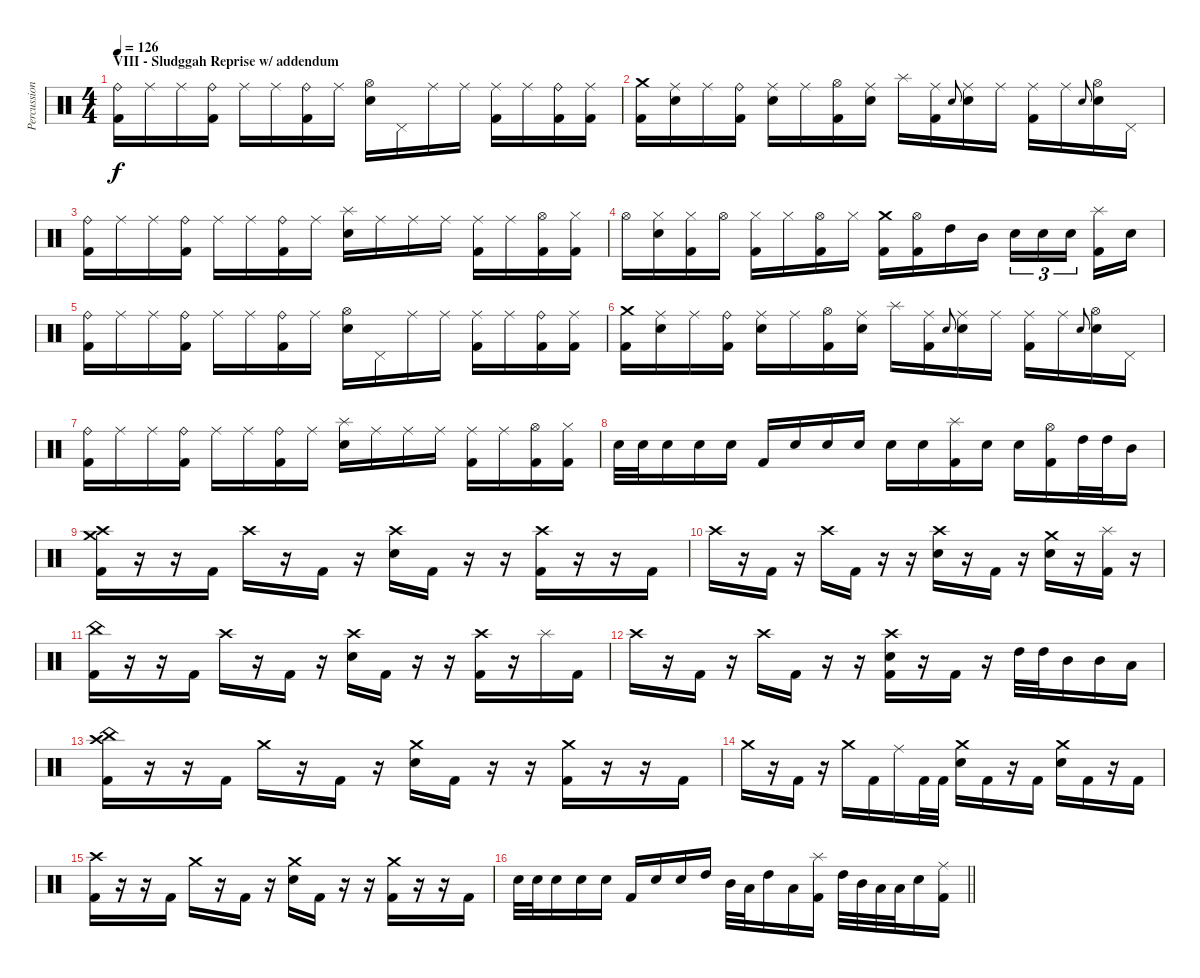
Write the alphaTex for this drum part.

\track ("Percussion" "Percussion") {instrument percussion}
\staff {score}
\articulation defaults
\ts (4 4)
\section ("" "VIII - Sludggah Reprise w/ addendum")
\tempo 126
\clef neutral
\ks c
("Ride (bell)" "Kick (hit) 2").16{dy f} "Ride (middle)".16 "Ride (middle)".16 ("Ride (bell)" "Kick (hit) 2").16 "Ride (middle)".16 "Ride (middle)".16 ("Ride (bell)" "Kick (hit) 2").16 "Ride (middle)".16 ("Hi-Hat (open)" "Electric Snare (hit)").16 "Pedal Hi-Hat (hit)".16 "Ride (middle)".16 "Ride (middle)".16 ("Ride (middle)" "Kick (hit) 2").16 "Ride (middle)".16 ("Ride (bell)" "Kick (hit) 2").16 ("Ride (middle)" "Kick (hit) 2").16 |
("Crash medium (hit)" "Kick (hit) 2").16 ("Ride (middle)" "Electric Snare (hit)").16 "Ride (middle)".16 ("Ride (bell)" "Kick (hit) 2").16 ("Ride (middle)" "Electric Snare (hit)").16 "Ride (middle)".16 ("Hi-Hat (open)" "Kick (hit) 2").16 ("Ride (middle)" "Electric Snare (hit)").16 "Splash (hit)".16 ("Ride (middle)" "Kick (hit) 2").16 "Electric Snare (hit)"{h}.8{gr onbeat} ("Ride (middle)" "Electric Snare (hit)").16 "Ride (middle)".16 ("Ride (middle)" "Kick (hit) 2").16 "Ride (middle)".16 "Electric Snare (hit)"{h}.8{gr onbeat} ("Hi-Hat (open)" "Electric Snare (hit)").16 "Pedal Hi-Hat (hit)".16 |
("Ride (bell)" "Kick (hit) 2").16 "Ride (middle)".16 "Ride (middle)".16 ("Ride (bell)" "Kick (hit) 2").16 "Ride (middle)".16 "Ride (middle)".16 ("Ride (bell)" "Kick (hit) 2").16 "Ride (middle)".16 ("Splash (hit)" "Electric Snare (hit)").16 "Ride (middle)".16 "Ride (middle)".16 "Ride (middle)".16 ("Ride (middle)" "Kick (hit) 2").16 "Ride (middle)".16 ("Hi-Hat (open)" "Kick (hit) 2").16 ("Hi-Hat (closed)" "Kick (hit) 2").16 |
"Hi-Hat (open)".16 ("Hi-Hat (closed)" "Electric Snare (hit)").16 ("Hi-Hat (closed)" "Kick (hit) 2").16 "Hi-Hat (open)".16 ("Hi-Hat (closed)" "Kick (hit) 2").16 "Hi-Hat (closed)".16 ("Hi-Hat (open)" "Kick (hit) 2").16 "Hi-Hat (closed)".16 ("Crash medium (hit)" "Kick (hit) 2").16 ("Hi-Hat (open)" "Kick (hit) 2").16 "High Tom (hit)".16 "Mid Tom (hit)".16 "Electric Snare (hit)".16{tu (3 2)} "Electric Snare (hit)".16{tu (3 2)} "Electric Snare (hit)".16{tu (3 2) beam splitsecondary} ("Splash (hit)" "Kick (hit) 2").16 "Electric Snare (hit)".16 |
("Ride (bell)" "Kick (hit) 2").16 "Ride (middle)".16 "Ride (middle)".16 ("Ride (bell)" "Kick (hit) 2").16 "Ride (middle)".16 "Ride (middle)".16 ("Ride (bell)" "Kick (hit) 2").16 "Ride (middle)".16 ("Hi-Hat (open)" "Electric Snare (hit)").16 "Pedal Hi-Hat (hit)".16 "Ride (middle)".16 "Ride (middle)".16 ("Ride (middle)" "Kick (hit) 2").16 "Ride (middle)".16 ("Ride (bell)" "Kick (hit) 2").16 ("Ride (middle)" "Kick (hit) 2").16 |
("Crash medium (hit)" "Kick (hit) 2").16 ("Ride (middle)" "Electric Snare (hit)").16 "Ride (middle)".16 ("Ride (bell)" "Kick (hit) 2").16 ("Ride (middle)" "Electric Snare (hit)").16 "Ride (middle)".16 ("Hi-Hat (open)" "Kick (hit) 2").16 ("Ride (middle)" "Electric Snare (hit)").16 "Splash (hit)".16 ("Ride (middle)" "Kick (hit) 2").16 "Electric Snare (hit)"{h}.8{gr onbeat} ("Ride (middle)" "Electric Snare (hit)").16 "Ride (middle)".16 ("Ride (middle)" "Kick (hit) 2").16 "Ride (middle)".16 "Electric Snare (hit)"{h}.8{gr onbeat} ("Hi-Hat (open)" "Electric Snare (hit)").16 "Pedal Hi-Hat (hit)".16 |
("Ride (bell)" "Kick (hit) 2").16 "Ride (middle)".16 "Ride (middle)".16 ("Ride (bell)" "Kick (hit) 2").16 "Ride (middle)".16 "Ride (middle)".16 ("Ride (bell)" "Kick (hit) 2").16 "Ride (middle)".16 ("Splash (hit)" "Electric Snare (hit)").16 "Ride (middle)".16 "Ride (middle)".16 "Ride (middle)".16 ("Ride (middle)" "Kick (hit) 2").16 "Ride (middle)".16 ("Hi-Hat (open)" "Kick (hit) 2").16 ("Hi-Hat (closed)" "Kick (hit) 2").16 |
"Electric Snare (hit)".32 "Electric Snare (hit)".32 "Electric Snare (hit)".16 "Snare (hit) 2".16 "Snare (hit) 2".16 "Kick (hit) 2".16 "Snare (hit) 2".16 "Snare (hit) 2".16 "Snare (hit) 2".16 "Snare (hit) 2".16 "Snare (hit) 2".16 ("Splash (hit)" "Kick (hit) 2").16 "Snare (hit) 2".16 "Snare (hit) 2".16 ("Hi-Hat (open)" "Kick (hit) 2").16 "High Tom (hit)".32 "High Tom (hit)".32 "Mid Tom (hit)".16 |
("Crash high (hit)" "Crash medium (hit)" "Kick (hit) 2").16 r.16 r.16 "Kick (hit) 2".16 "Crash high (hit)".16 r.16 "Kick (hit) 2".16 r.16 ("Crash high (hit)" "Snare (hit) 2").16 "Kick (hit) 2".16 r.16 r.16 ("Crash high (hit)" "Kick (hit) 2").16 r.16 r.16 "Kick (hit) 2".16 |
"Crash high (hit)".16 r.16 "Kick (hit) 2".16 r.16 "Crash high (hit)".16 "Kick (hit) 2".16 r.16 r.16 ("Crash high (hit)" "Snare (hit) 2").16 r.16 "Kick (hit) 2".16 r.16 ("Crash medium (hit)" "Snare (hit) 2").16 r.16 ("Splash (hit)" "Kick (hit) 2").16 r.16 |
("China (hit)" "Kick (hit) 2").16 r.16 r.16 "Kick (hit) 2".16 "Crash high (hit)".16 r.16 "Kick (hit) 2".16 r.16 ("Crash high (hit)" "Snare (hit) 2").16 "Kick (hit) 2".16 r.16 r.16 ("Crash high (hit)" "Kick (hit) 2").16 r.16 "Splash (hit)".16 "Kick (hit) 2".16 |
"Crash high (hit)".16 r.16 "Kick (hit) 2".16 r.16 "Crash high (hit)".16 "Kick (hit) 2".16 r.16 r.16 ("Crash high (hit)" "Snare (hit) 2" "Kick (hit) 2").16 r.16 "Kick (hit) 2".16 r.16 "High Tom (hit)".32 "High Tom (hit)".32 "Mid Tom (hit)".16 "Mid Tom (hit)".16 "Low Tom (hit)".16 |
("China (hit)" "Crash high (hit)" "Kick (hit) 2").16 r.16 r.16 "Kick (hit) 2".16 "Crash medium (hit)".16 r.16 "Kick (hit) 2".16 r.16 ("Crash medium (hit)" "Snare (hit) 2").16 "Kick (hit) 2".16 r.16 r.16 ("Crash medium (hit)" "Kick (hit) 2").16 r.16 r.16 "Kick (hit) 2".16 |
"Crash medium (hit)".16 r.16 "Kick (hit) 2".16 r.16 "Crash medium (hit)".16 "Kick (hit) 2".16 "Ride (middle)".16 "Kick (hit) 2".32 "Kick (hit) 2".32 ("Crash medium (hit)" "Snare (hit) 2").16 "Kick (hit) 2".16 r.16 "Kick (hit) 2".16 ("Crash medium (hit)" "Snare (hit) 2").16 "Kick (hit) 2".16 r.16 "Kick (hit) 2".16 |
("Crash high (hit)" "Kick (hit) 2").16 r.16 r.16 "Kick (hit) 2".16 "Crash medium (hit)".16 r.16 "Kick (hit) 2".16 r.16 ("Crash medium (hit)" "Snare (hit) 2").16 "Kick (hit) 2".16 r.16 r.16 ("Crash medium (hit)" "Kick (hit) 2").16 r.16 r.16 "Kick (hit) 2".16 |
\barLineRight lightlight "Electric Snare (hit)".32 "Electric Snare (hit)".32 "Electric Snare (hit)".16 "Snare (hit) 2".16 "Snare (hit) 2".16 "Kick (hit) 2".16 "Snare (hit) 2".16 "Snare (hit) 2".16 "High Tom (hit)".16 "Mid Tom (hit)".32 "Low Tom (hit)".32 "High Tom (hit)".16 "Low Tom (hit)".16
("Splash (hit)" "Kick (hit) 2").16 "High Tom (hit)".32 "Mid Tom (hit)".32 "Low Tom (hit)".32 "Low Tom (hit)".32 "Snare (hit) 2".16 ("Ride (middle)" "Kick (hit) 2").16
